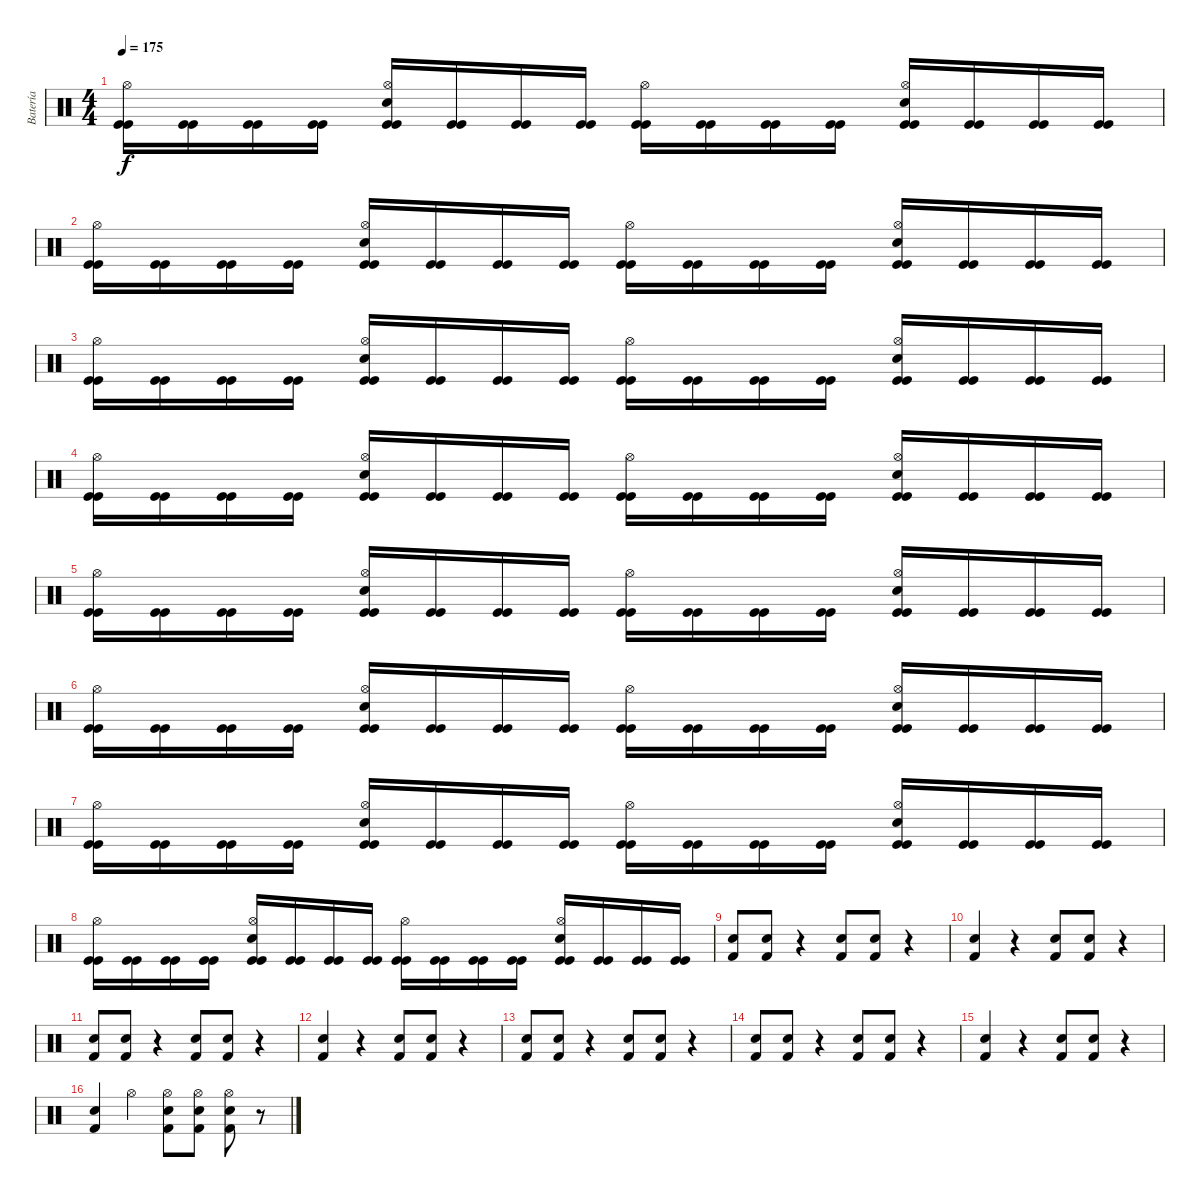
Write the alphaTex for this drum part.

\track ("Batería" "Batería") {instrument percussion}
\staff {score}
\articulation defaults
\ts (4 4)
\tempo 175
\clef neutral
\ks c
("Kick (hit)" "Kick (hit)" "Hi-Hat (open)").16{dy f} ("Kick (hit)" "Kick (hit)").16 ("Kick (hit)" "Kick (hit)").16 ("Kick (hit)" "Kick (hit)").16 ("Kick (hit)" "Kick (hit)" "Snare (hit) 2" "Hi-Hat (open)").16 ("Kick (hit)" "Kick (hit)").16 ("Kick (hit)" "Kick (hit)").16 ("Kick (hit)" "Kick (hit)").16 ("Kick (hit)" "Kick (hit)" "Hi-Hat (open)").16 ("Kick (hit)" "Kick (hit)").16 ("Kick (hit)" "Kick (hit)").16 ("Kick (hit)" "Kick (hit)").16 ("Kick (hit)" "Kick (hit)" "Snare (hit) 2" "Hi-Hat (open)").16 ("Kick (hit)" "Kick (hit)").16 ("Kick (hit)" "Kick (hit)").16 ("Kick (hit)" "Kick (hit)").16 |
("Kick (hit)" "Kick (hit)" "Hi-Hat (open)").16 ("Kick (hit)" "Kick (hit)").16 ("Kick (hit)" "Kick (hit)").16 ("Kick (hit)" "Kick (hit)").16 ("Kick (hit)" "Kick (hit)" "Snare (hit) 2" "Hi-Hat (open)").16 ("Kick (hit)" "Kick (hit)").16 ("Kick (hit)" "Kick (hit)").16 ("Kick (hit)" "Kick (hit)").16 ("Kick (hit)" "Kick (hit)" "Hi-Hat (open)").16 ("Kick (hit)" "Kick (hit)").16 ("Kick (hit)" "Kick (hit)").16 ("Kick (hit)" "Kick (hit)").16 ("Kick (hit)" "Kick (hit)" "Snare (hit) 2" "Hi-Hat (open)").16 ("Kick (hit)" "Kick (hit)").16 ("Kick (hit)" "Kick (hit)").16 ("Kick (hit)" "Kick (hit)").16 |
("Kick (hit)" "Kick (hit)" "Hi-Hat (open)").16 ("Kick (hit)" "Kick (hit)").16 ("Kick (hit)" "Kick (hit)").16 ("Kick (hit)" "Kick (hit)").16 ("Kick (hit)" "Kick (hit)" "Snare (hit) 2" "Hi-Hat (open)").16 ("Kick (hit)" "Kick (hit)").16 ("Kick (hit)" "Kick (hit)").16 ("Kick (hit)" "Kick (hit)").16 ("Kick (hit)" "Kick (hit)" "Hi-Hat (open)").16 ("Kick (hit)" "Kick (hit)").16 ("Kick (hit)" "Kick (hit)").16 ("Kick (hit)" "Kick (hit)").16 ("Kick (hit)" "Kick (hit)" "Snare (hit) 2" "Hi-Hat (open)").16 ("Kick (hit)" "Kick (hit)").16 ("Kick (hit)" "Kick (hit)").16 ("Kick (hit)" "Kick (hit)").16 |
("Kick (hit)" "Kick (hit)" "Hi-Hat (open)").16 ("Kick (hit)" "Kick (hit)").16 ("Kick (hit)" "Kick (hit)").16 ("Kick (hit)" "Kick (hit)").16 ("Kick (hit)" "Kick (hit)" "Snare (hit) 2" "Hi-Hat (open)").16 ("Kick (hit)" "Kick (hit)").16 ("Kick (hit)" "Kick (hit)").16 ("Kick (hit)" "Kick (hit)").16 ("Kick (hit)" "Kick (hit)" "Hi-Hat (open)").16 ("Kick (hit)" "Kick (hit)").16 ("Kick (hit)" "Kick (hit)").16 ("Kick (hit)" "Kick (hit)").16 ("Kick (hit)" "Kick (hit)" "Snare (hit) 2" "Hi-Hat (open)").16 ("Kick (hit)" "Kick (hit)").16 ("Kick (hit)" "Kick (hit)").16 ("Kick (hit)" "Kick (hit)").16 |
("Kick (hit)" "Kick (hit)" "Hi-Hat (open)").16 ("Kick (hit)" "Kick (hit)").16 ("Kick (hit)" "Kick (hit)").16 ("Kick (hit)" "Kick (hit)").16 ("Kick (hit)" "Kick (hit)" "Snare (hit) 2" "Hi-Hat (open)").16 ("Kick (hit)" "Kick (hit)").16 ("Kick (hit)" "Kick (hit)").16 ("Kick (hit)" "Kick (hit)").16 ("Kick (hit)" "Kick (hit)" "Hi-Hat (open)").16 ("Kick (hit)" "Kick (hit)").16 ("Kick (hit)" "Kick (hit)").16 ("Kick (hit)" "Kick (hit)").16 ("Kick (hit)" "Kick (hit)" "Snare (hit) 2" "Hi-Hat (open)").16 ("Kick (hit)" "Kick (hit)").16 ("Kick (hit)" "Kick (hit)").16 ("Kick (hit)" "Kick (hit)").16 |
("Kick (hit)" "Kick (hit)" "Hi-Hat (open)").16 ("Kick (hit)" "Kick (hit)").16 ("Kick (hit)" "Kick (hit)").16 ("Kick (hit)" "Kick (hit)").16 ("Kick (hit)" "Kick (hit)" "Snare (hit) 2" "Hi-Hat (open)").16 ("Kick (hit)" "Kick (hit)").16 ("Kick (hit)" "Kick (hit)").16 ("Kick (hit)" "Kick (hit)").16 ("Kick (hit)" "Kick (hit)" "Hi-Hat (open)").16 ("Kick (hit)" "Kick (hit)").16 ("Kick (hit)" "Kick (hit)").16 ("Kick (hit)" "Kick (hit)").16 ("Kick (hit)" "Kick (hit)" "Snare (hit) 2" "Hi-Hat (open)").16 ("Kick (hit)" "Kick (hit)").16 ("Kick (hit)" "Kick (hit)").16 ("Kick (hit)" "Kick (hit)").16 |
("Kick (hit)" "Kick (hit)" "Hi-Hat (open)").16 ("Kick (hit)" "Kick (hit)").16 ("Kick (hit)" "Kick (hit)").16 ("Kick (hit)" "Kick (hit)").16 ("Kick (hit)" "Kick (hit)" "Snare (hit) 2" "Hi-Hat (open)").16 ("Kick (hit)" "Kick (hit)").16 ("Kick (hit)" "Kick (hit)").16 ("Kick (hit)" "Kick (hit)").16 ("Kick (hit)" "Kick (hit)" "Hi-Hat (open)").16 ("Kick (hit)" "Kick (hit)").16 ("Kick (hit)" "Kick (hit)").16 ("Kick (hit)" "Kick (hit)").16 ("Kick (hit)" "Kick (hit)" "Snare (hit) 2" "Hi-Hat (open)").16 ("Kick (hit)" "Kick (hit)").16 ("Kick (hit)" "Kick (hit)").16 ("Kick (hit)" "Kick (hit)").16 |
("Kick (hit)" "Kick (hit)" "Hi-Hat (open)").16 ("Kick (hit)" "Kick (hit)").16 ("Kick (hit)" "Kick (hit)").16 ("Kick (hit)" "Kick (hit)").16 ("Kick (hit)" "Kick (hit)" "Snare (hit) 2" "Hi-Hat (open)").16 ("Kick (hit)" "Kick (hit)").16 ("Kick (hit)" "Kick (hit)").16 ("Kick (hit)" "Kick (hit)").16 ("Kick (hit)" "Kick (hit)" "Hi-Hat (open)").16 ("Kick (hit)" "Kick (hit)").16 ("Kick (hit)" "Kick (hit)").16 ("Kick (hit)" "Kick (hit)").16 ("Kick (hit)" "Kick (hit)" "Snare (hit) 2" "Hi-Hat (open)").16 ("Kick (hit)" "Kick (hit)").16 ("Kick (hit)" "Kick (hit)").16 ("Kick (hit)" "Kick (hit)").16 |
("Kick (hit) 2" "Snare (hit) 2").8 ("Kick (hit) 2" "Snare (hit) 2").8 r.4 ("Kick (hit) 2" "Snare (hit) 2").8 ("Kick (hit) 2" "Snare (hit) 2").8 r.4 |
("Kick (hit) 2" "Snare (hit) 2").4 r.4 ("Kick (hit) 2" "Snare (hit) 2").8 ("Kick (hit) 2" "Snare (hit) 2").8 r.4 |
("Kick (hit) 2" "Snare (hit) 2").8 ("Kick (hit) 2" "Snare (hit) 2").8 r.4 ("Kick (hit) 2" "Snare (hit) 2").8 ("Kick (hit) 2" "Snare (hit) 2").8 r.4 |
("Kick (hit) 2" "Snare (hit) 2").4 r.4 ("Kick (hit) 2" "Snare (hit) 2").8 ("Kick (hit) 2" "Snare (hit) 2").8 r.4 |
("Kick (hit) 2" "Snare (hit) 2").8 ("Kick (hit) 2" "Snare (hit) 2").8 r.4 ("Kick (hit) 2" "Snare (hit) 2").8 ("Kick (hit) 2" "Snare (hit) 2").8 r.4 |
("Kick (hit) 2" "Snare (hit) 2").8 ("Kick (hit) 2" "Snare (hit) 2").8 r.4 ("Kick (hit) 2" "Snare (hit) 2").8 ("Kick (hit) 2" "Snare (hit) 2").8 r.4 |
("Kick (hit) 2" "Snare (hit) 2").4 r.4 ("Kick (hit) 2" "Snare (hit) 2").8 ("Kick (hit) 2" "Snare (hit) 2").8 r.4 |
("Kick (hit) 2" "Snare (hit) 2").4 "Hi-Hat (open)".4 ("Kick (hit) 2" "Hi-Hat (open)" "Snare (hit) 2").8 ("Kick (hit) 2" "Hi-Hat (open)" "Snare (hit) 2").8 ("Kick (hit) 2" "Hi-Hat (open)" "Snare (hit) 2").8 r.8
